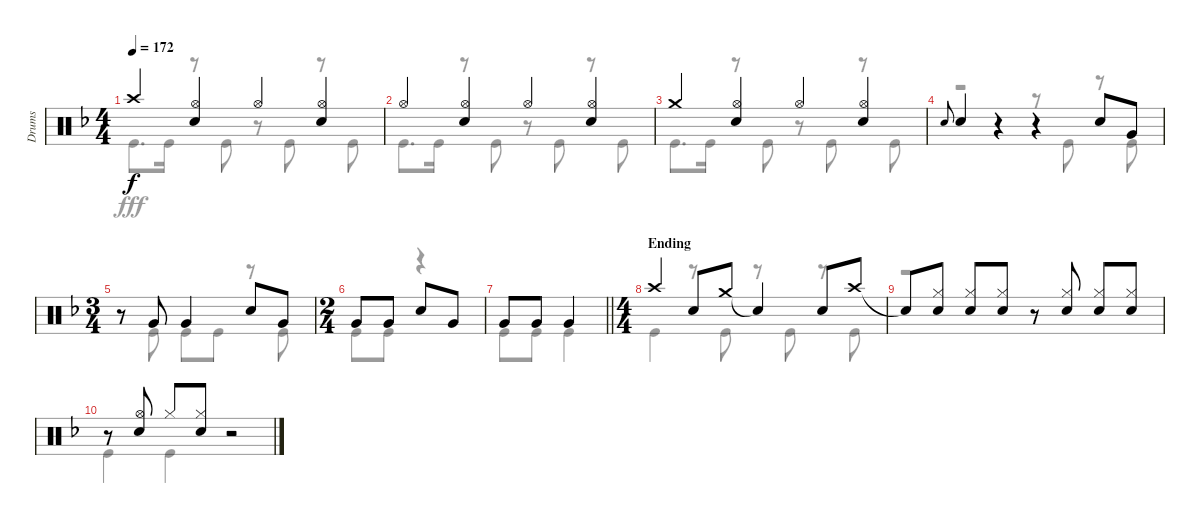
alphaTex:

\track ("Drums" "Drums") {instrument percussion}
\staff {score}
\articulation defaults
\voice
\ts (4 4)
\tempo 172
\clef neutral
\ks f "Crash high (hit)".4{dy f}
("Hi-Hat (open)" "Snare (hit) 2").4 "Hi-Hat (open)".4 ("Hi-Hat (open)" "Snare (hit) 2").4 |
"Hi-Hat (open)".4 ("Hi-Hat (open)" "Snare (hit) 2").4 "Hi-Hat (open)".4 ("Hi-Hat (open)" "Snare (hit) 2").4 |
"Crash medium (hit)".4 ("Hi-Hat (open)" "Snare (hit) 2").4 "Hi-Hat (open)".4 ("Hi-Hat (open)" "Snare (hit) 2").4 |
"Snare (hit) 2".8{gr onbeat} "Snare (hit) 2".4 r.4 r.4 "Snare (hit) 2".8 "Very Low Tom (hit)".8 |
\ts (3 4)
r.8 "Very Low Tom (hit)".8 "Very Low Tom (hit)".4 "Snare (hit) 2".8 "Very Low Tom (hit)".8 |
\ts (2 4)
"Very Low Tom (hit)".8 "Very Low Tom (hit)".8 "Snare (hit) 2".8 "Very Low Tom (hit)".8 |
\barLineRight lightlight "Very Low Tom (hit)".8 "Very Low Tom (hit)".8 "Very Low Tom (hit)".4
|
\ts (4 4)
\section ("" "Ending")
"Crash high (hit)".4 "Snare (hit) 2".8 "Crash medium (hit)".8 "Snare (hit)"{t}.4 "Snare (hit) 2".8 "Crash high (hit)".8 |
"Snare (hit)"{t}.8 ("Hi-Hat (closed)" "Snare (hit) 2").8 ("Hi-Hat (closed)" "Snare (hit) 2").8 ("Hi-Hat (closed)" "Snare (hit) 2").8 r.8 ("Hi-Hat (closed)" "Snare (hit) 2").8 ("Hi-Hat (closed)" "Snare (hit) 2").8 ("Hi-Hat (closed)" "Snare (hit) 2").8 |
r.8 ("Hi-Hat (open)" "Snare (hit) 2").8 "Hi-Hat (closed)".8 ("Hi-Hat (closed)" "Snare (hit) 2").8 r.2
\voice
\clef neutral
\ottava regular
\simile none
\ks f "Kick (hit)".8{d dy fff} "Kick (hit)".16
r.8 "Kick (hit)".8 r.8 "Kick (hit)".8 r.8 "Kick (hit)".8 |
"Kick (hit)".8{d} "Kick (hit)".16 r.8 "Kick (hit)".8 r.8 "Kick (hit)".8 r.8 "Kick (hit)".8 |
"Kick (hit)".8{d} "Kick (hit)".16 r.8 "Kick (hit)".8 r.8 "Kick (hit)".8 r.8 "Kick (hit)".8 |
r.2 r.8 "Kick (hit)".8 r.8 "Kick (hit)".8 |
r.8 "Kick (hit)".8 "Kick (hit)".8 "Kick (hit)".8 r.8 "Kick (hit)".8 |
"Kick (hit)".8 "Kick (hit)".8 r.4 |
\barLineRight lightlight "Kick (hit)".8 "Kick (hit)".8 "Kick (hit)".4
|
"Kick (hit)".4 r.8 "Kick (hit)".8 r.8 "Kick (hit)".8 r.8 "Kick (hit)".8 |
r.1 |
"Kick (hit)".4 "Kick (hit)".4 r.2
